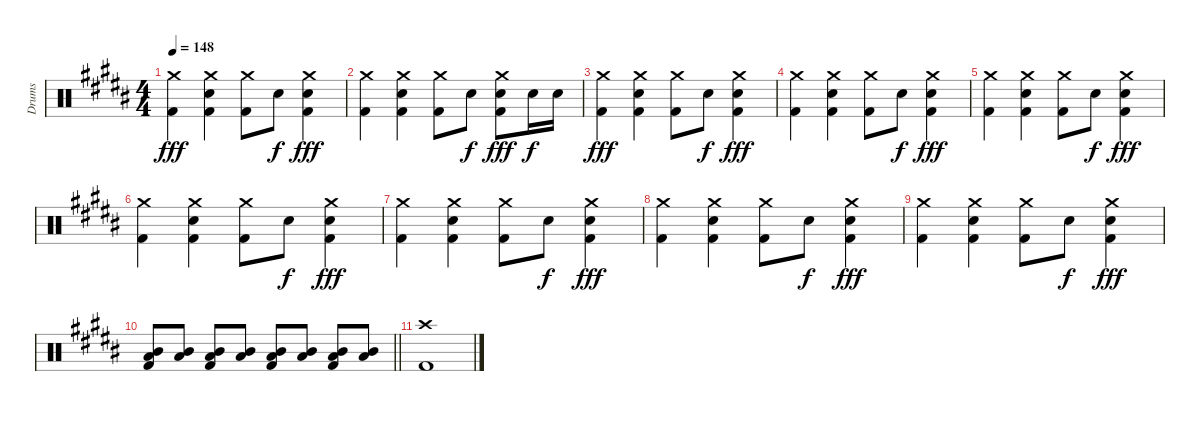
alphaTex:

\track ("Drums" "Drums") {instrument percussion}
\staff {score}
\articulation defaults
\ts (4 4)
\tempo 148
\clef neutral
\ks b
("Crash medium (hit)" "Kick (hit) 2").4{dy fff} ("Crash medium (hit)" "Snare (hit) 2" "Kick (hit) 2").4 ("Crash medium (hit)" "Kick (hit) 2").8 "Electric Snare (hit)".8{dy f} ("Crash medium (hit)" "Snare (hit) 2" "Kick (hit) 2").4{dy fff} |
("Crash medium (hit)" "Kick (hit) 2").4 ("Crash medium (hit)" "Snare (hit) 2" "Kick (hit) 2").4 ("Crash medium (hit)" "Kick (hit) 2").8 "Electric Snare (hit)".8{dy f} ("Crash medium (hit)" "Snare (hit) 2" "Kick (hit) 2").8{dy fff} "Snare (hit) 2".16{dy f} "Snare (hit) 2".16 |
("Crash medium (hit)" "Kick (hit) 2").4{dy fff} ("Crash medium (hit)" "Snare (hit) 2" "Kick (hit) 2").4 ("Crash medium (hit)" "Kick (hit) 2").8 "Electric Snare (hit)".8{dy f} ("Crash medium (hit)" "Snare (hit) 2" "Kick (hit) 2").4{dy fff} |
("Crash medium (hit)" "Kick (hit) 2").4 ("Crash medium (hit)" "Snare (hit) 2" "Kick (hit) 2").4 ("Crash medium (hit)" "Kick (hit) 2").8 "Electric Snare (hit)".8{dy f} ("Crash medium (hit)" "Snare (hit) 2" "Kick (hit) 2").4{dy fff} |
("Crash medium (hit)" "Kick (hit) 2").4 ("Crash medium (hit)" "Snare (hit) 2" "Kick (hit) 2").4 ("Crash medium (hit)" "Kick (hit) 2").8 "Electric Snare (hit)".8{dy f} ("Crash medium (hit)" "Snare (hit) 2" "Kick (hit) 2").4{dy fff} |
("Crash medium (hit)" "Kick (hit) 2").4 ("Crash medium (hit)" "Snare (hit) 2" "Kick (hit) 2").4 ("Crash medium (hit)" "Kick (hit) 2").8 "Electric Snare (hit)".8{dy f} ("Crash medium (hit)" "Snare (hit) 2" "Kick (hit) 2").4{dy fff} |
("Crash medium (hit)" "Kick (hit) 2").4 ("Crash medium (hit)" "Snare (hit) 2" "Kick (hit) 2").4 ("Crash medium (hit)" "Kick (hit) 2").8 "Electric Snare (hit)".8{dy f} ("Crash medium (hit)" "Snare (hit) 2" "Kick (hit) 2").4{dy fff} |
("Crash medium (hit)" "Kick (hit) 2").4 ("Crash medium (hit)" "Snare (hit) 2" "Kick (hit) 2").4 ("Crash medium (hit)" "Kick (hit) 2").8 "Electric Snare (hit)".8{dy f} ("Crash medium (hit)" "Snare (hit) 2" "Kick (hit) 2").4{dy fff} |
("Crash medium (hit)" "Kick (hit) 2").4 ("Crash medium (hit)" "Snare (hit) 2" "Kick (hit) 2").4 ("Crash medium (hit)" "Kick (hit) 2").8 "Electric Snare (hit)".8{dy f} ("Crash medium (hit)" "Snare (hit) 2" "Kick (hit) 2").4{dy fff} |
\barLineRight lightlight
("Mid Tom (hit)" "Low Tom (hit)" "Kick (hit) 2").8 ("Mid Tom (hit)" "Low Tom (hit)").8 ("Mid Tom (hit)" "Low Tom (hit)" "Kick (hit) 2").8 ("Mid Tom (hit)" "Low Tom (hit)").8 ("Mid Tom (hit)" "Low Tom (hit)" "Kick (hit) 2").8 ("Mid Tom (hit)" "Low Tom (hit)").8 ("Mid Tom (hit)" "Low Tom (hit)" "Kick (hit) 2").8 ("Mid Tom (hit)" "Low Tom (hit)").8 |
("Crash high (hit)" "Kick (hit) 2").1
